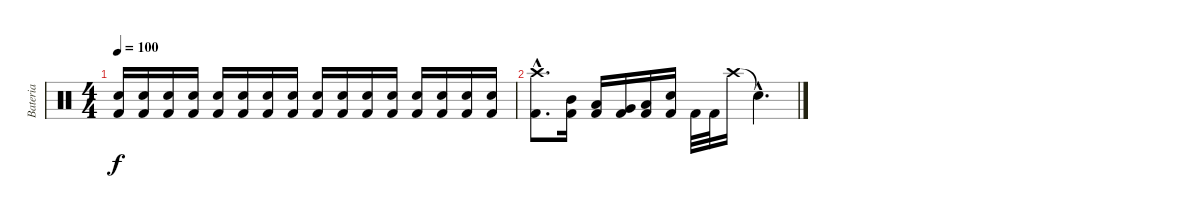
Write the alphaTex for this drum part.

\track ("Bateria" "Bateria") {instrument percussion}
\staff {score}
\articulation defaults
\ts (4 4)
\tempo 100
\clef neutral
\ks c
("Electric Snare (hit)" "Kick (hit) 2").16{dy f} ("Electric Snare (hit)" "Kick (hit) 2").16 ("Electric Snare (hit)" "Kick (hit) 2").16 ("Electric Snare (hit)" "Kick (hit) 2").16 ("Electric Snare (hit)" "Kick (hit) 2").16 ("Electric Snare (hit)" "Kick (hit) 2").16 ("Electric Snare (hit)" "Kick (hit) 2").16 ("Electric Snare (hit)" "Kick (hit) 2").16 ("Electric Snare (hit)" "Kick (hit) 2").16 ("Electric Snare (hit)" "Kick (hit) 2").16 ("Electric Snare (hit)" "Kick (hit) 2").16 ("Electric Snare (hit)" "Kick (hit) 2").16 ("Electric Snare (hit)" "Kick (hit) 2").16 ("Electric Snare (hit)" "Kick (hit) 2").16 ("Electric Snare (hit)" "Kick (hit) 2").16 ("Electric Snare (hit)" "Kick (hit) 2").16 |
("Crash high (hit)"{hac} "Kick (hit) 2"{hac}).8{d} ("Mid Tom (hit)" "Kick (hit) 2").16 ("Low Tom (hit)" "Kick (hit) 2").16 ("Very Low Tom (hit)" "Kick (hit) 2").16 ("Low Floor Tom (hit)" "Kick (hit) 2").16 ("Electric Snare (hit)" "Kick (hit) 2").16 "Kick (hit) 2".32 "Kick (hit) 2".32 "Crash high (hit)".16 "Snare (hit)"{hac t}.4{d}
